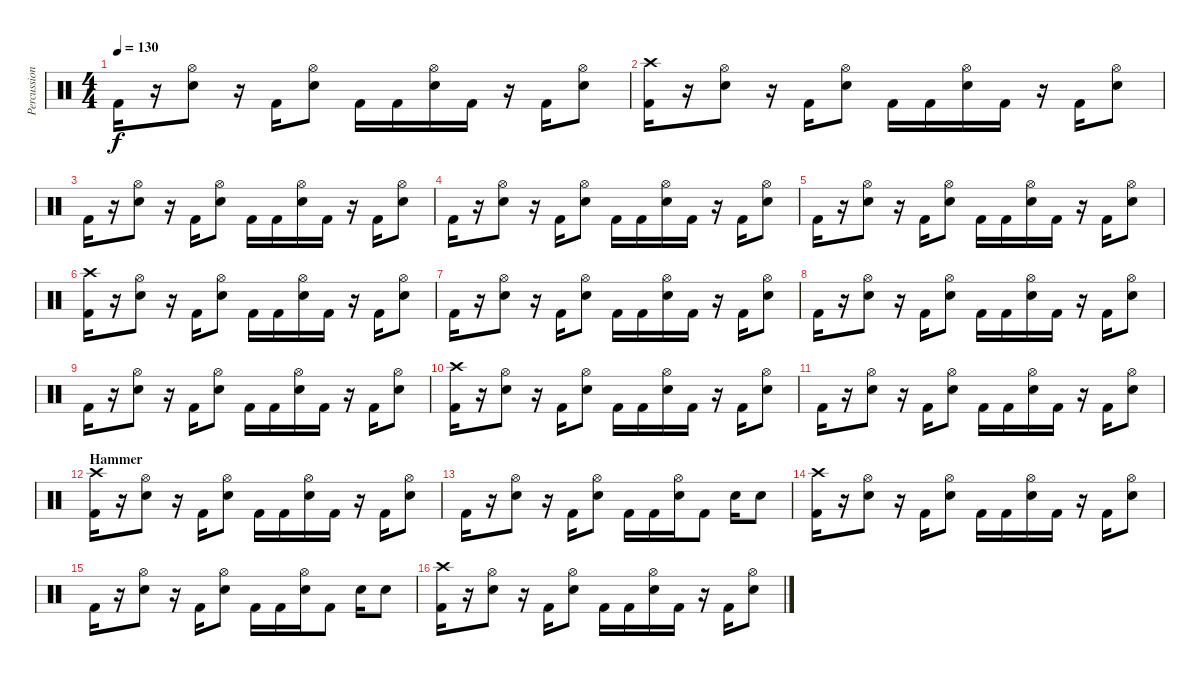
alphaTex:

\track ("Percussion" "Percussion") {instrument percussion}
\staff {score}
\articulation defaults
\ts (4 4)
\tempo 130
\clef neutral
\ks c "Kick (hit) 2".16{dy f}
r.16 ("Electric Snare (hit)" "Hi-Hat (open)").8 r.16 "Kick (hit) 2".16 ("Electric Snare (hit)" "Hi-Hat (open)").8 "Kick (hit) 2".16 "Kick (hit) 2".16 ("Electric Snare (hit)" "Hi-Hat (open)").16 "Kick (hit) 2".16 r.16 "Kick (hit) 2".16 ("Electric Snare (hit)" "Hi-Hat (open)").8 |
("Kick (hit) 2" "Crash high (hit)").16 r.16 ("Electric Snare (hit)" "Hi-Hat (open)").8 r.16 "Kick (hit) 2".16 ("Electric Snare (hit)" "Hi-Hat (open)").8 "Kick (hit) 2".16 "Kick (hit) 2".16 ("Electric Snare (hit)" "Hi-Hat (open)").16 "Kick (hit) 2".16 r.16 "Kick (hit) 2".16 ("Electric Snare (hit)" "Hi-Hat (open)").8 |
"Kick (hit) 2".16 r.16 ("Electric Snare (hit)" "Hi-Hat (open)").8 r.16 "Kick (hit) 2".16 ("Electric Snare (hit)" "Hi-Hat (open)").8 "Kick (hit) 2".16 "Kick (hit) 2".16 ("Electric Snare (hit)" "Hi-Hat (open)").16 "Kick (hit) 2".16 r.16 "Kick (hit) 2".16 ("Electric Snare (hit)" "Hi-Hat (open)").8 |
"Kick (hit) 2".16 r.16 ("Electric Snare (hit)" "Hi-Hat (open)").8 r.16 "Kick (hit) 2".16 ("Electric Snare (hit)" "Hi-Hat (open)").8 "Kick (hit) 2".16 "Kick (hit) 2".16 ("Electric Snare (hit)" "Hi-Hat (open)").16 "Kick (hit) 2".16 r.16 "Kick (hit) 2".16 ("Electric Snare (hit)" "Hi-Hat (open)").8 |
"Kick (hit) 2".16 r.16 ("Electric Snare (hit)" "Hi-Hat (open)").8 r.16 "Kick (hit) 2".16 ("Electric Snare (hit)" "Hi-Hat (open)").8 "Kick (hit) 2".16 "Kick (hit) 2".16 ("Electric Snare (hit)" "Hi-Hat (open)").16 "Kick (hit) 2".16 r.16 "Kick (hit) 2".16 ("Electric Snare (hit)" "Hi-Hat (open)").8 |
("Kick (hit) 2" "Crash high (hit)").16 r.16 ("Electric Snare (hit)" "Hi-Hat (open)").8 r.16 "Kick (hit) 2".16 ("Electric Snare (hit)" "Hi-Hat (open)").8 "Kick (hit) 2".16 "Kick (hit) 2".16 ("Electric Snare (hit)" "Hi-Hat (open)").16 "Kick (hit) 2".16 r.16 "Kick (hit) 2".16 ("Electric Snare (hit)" "Hi-Hat (open)").8 |
"Kick (hit) 2".16 r.16 ("Electric Snare (hit)" "Hi-Hat (open)").8 r.16 "Kick (hit) 2".16 ("Electric Snare (hit)" "Hi-Hat (open)").8 "Kick (hit) 2".16 "Kick (hit) 2".16 ("Electric Snare (hit)" "Hi-Hat (open)").16 "Kick (hit) 2".16 r.16 "Kick (hit) 2".16 ("Electric Snare (hit)" "Hi-Hat (open)").8 |
"Kick (hit) 2".16 r.16 ("Electric Snare (hit)" "Hi-Hat (open)").8 r.16 "Kick (hit) 2".16 ("Electric Snare (hit)" "Hi-Hat (open)").8 "Kick (hit) 2".16 "Kick (hit) 2".16 ("Electric Snare (hit)" "Hi-Hat (open)").16 "Kick (hit) 2".16 r.16 "Kick (hit) 2".16 ("Electric Snare (hit)" "Hi-Hat (open)").8 |
"Kick (hit) 2".16 r.16 ("Electric Snare (hit)" "Hi-Hat (open)").8 r.16 "Kick (hit) 2".16 ("Electric Snare (hit)" "Hi-Hat (open)").8 "Kick (hit) 2".16 "Kick (hit) 2".16 ("Electric Snare (hit)" "Hi-Hat (open)").16 "Kick (hit) 2".16 r.16 "Kick (hit) 2".16 ("Electric Snare (hit)" "Hi-Hat (open)").8 |
("Kick (hit) 2" "Crash high (hit)").16 r.16 ("Electric Snare (hit)" "Hi-Hat (open)").8 r.16 "Kick (hit) 2".16 ("Electric Snare (hit)" "Hi-Hat (open)").8 "Kick (hit) 2".16 "Kick (hit) 2".16 ("Electric Snare (hit)" "Hi-Hat (open)").16 "Kick (hit) 2".16 r.16 "Kick (hit) 2".16 ("Electric Snare (hit)" "Hi-Hat (open)").8 |
"Kick (hit) 2".16 r.16 ("Electric Snare (hit)" "Hi-Hat (open)").8 r.16 "Kick (hit) 2".16 ("Electric Snare (hit)" "Hi-Hat (open)").8 "Kick (hit) 2".16 "Kick (hit) 2".16 ("Electric Snare (hit)" "Hi-Hat (open)").16 "Kick (hit) 2".16 r.16 "Kick (hit) 2".16 ("Electric Snare (hit)" "Hi-Hat (open)").8 |
\section ("" "Hammer")
("Kick (hit) 2" "Crash high (hit)").16 r.16 ("Electric Snare (hit)" "Hi-Hat (open)").8 r.16 "Kick (hit) 2".16 ("Electric Snare (hit)" "Hi-Hat (open)").8 "Kick (hit) 2".16 "Kick (hit) 2".16 ("Electric Snare (hit)" "Hi-Hat (open)").16 "Kick (hit) 2".16 r.16 "Kick (hit) 2".16 ("Electric Snare (hit)" "Hi-Hat (open)").8 |
"Kick (hit) 2".16 r.16 ("Electric Snare (hit)" "Hi-Hat (open)").8 r.16 "Kick (hit) 2".16 ("Electric Snare (hit)" "Hi-Hat (open)").8 "Kick (hit) 2".16 "Kick (hit) 2".16 ("Electric Snare (hit)" "Hi-Hat (open)").16 "Kick (hit) 2".8 "Electric Snare (hit)".16 "Electric Snare (hit)".8 |
("Kick (hit) 2" "Crash high (hit)").16 r.16 ("Electric Snare (hit)" "Hi-Hat (open)").8 r.16 "Kick (hit) 2".16 ("Electric Snare (hit)" "Hi-Hat (open)").8 "Kick (hit) 2".16 "Kick (hit) 2".16 ("Electric Snare (hit)" "Hi-Hat (open)").16 "Kick (hit) 2".16 r.16 "Kick (hit) 2".16 ("Electric Snare (hit)" "Hi-Hat (open)").8 |
"Kick (hit) 2".16 r.16 ("Electric Snare (hit)" "Hi-Hat (open)").8 r.16 "Kick (hit) 2".16 ("Electric Snare (hit)" "Hi-Hat (open)").8 "Kick (hit) 2".16 "Kick (hit) 2".16 ("Electric Snare (hit)" "Hi-Hat (open)").16 "Kick (hit) 2".8 "Electric Snare (hit)".16 "Electric Snare (hit)".8 |
("Kick (hit) 2" "Crash high (hit)").16 r.16 ("Electric Snare (hit)" "Hi-Hat (open)").8 r.16 "Kick (hit) 2".16 ("Electric Snare (hit)" "Hi-Hat (open)").8 "Kick (hit) 2".16 "Kick (hit) 2".16 ("Electric Snare (hit)" "Hi-Hat (open)").16 "Kick (hit) 2".16 r.16 "Kick (hit) 2".16 ("Electric Snare (hit)" "Hi-Hat (open)").8
